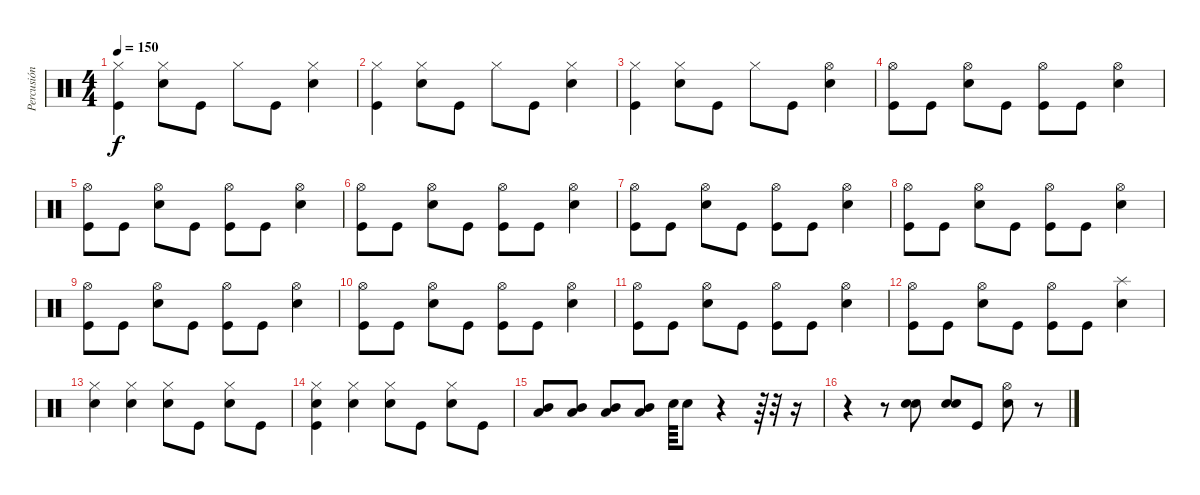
\track ("Percusión" "Percusión") {instrument percussion}
\staff {score}
\articulation defaults
\ts (4 4)
\tempo 150
\clef neutral
\ks c
("Hi-Hat (closed)" "Kick (hit)").4{dy f} ("Hi-Hat (closed)" "Snare (hit) 2").8 "Kick (hit)".8 "Hi-Hat (closed)".8 "Kick (hit)".8 ("Hi-Hat (closed)" "Snare (hit) 2").4 |
("Hi-Hat (closed)" "Kick (hit)").4 ("Hi-Hat (closed)" "Snare (hit) 2").8 "Kick (hit)".8 "Hi-Hat (closed)".8 "Kick (hit)".8 ("Hi-Hat (closed)" "Snare (hit) 2").4 |
("Hi-Hat (closed)" "Kick (hit)").4 ("Hi-Hat (closed)" "Snare (hit) 2").8 "Kick (hit)".8 "Hi-Hat (closed)".8 "Kick (hit)".8 ("Hi-Hat (open)" "Snare (hit) 2").4 |
("Hi-Hat (open)" "Kick (hit)").8 "Kick (hit)".8 ("Hi-Hat (open)" "Snare (hit) 2").8 "Kick (hit)".8 ("Hi-Hat (open)" "Kick (hit)").8 "Kick (hit)".8 ("Hi-Hat (open)" "Snare (hit) 2").4 |
("Hi-Hat (open)" "Kick (hit)").8 "Kick (hit)".8 ("Hi-Hat (open)" "Snare (hit) 2").8 "Kick (hit)".8 ("Hi-Hat (open)" "Kick (hit)").8 "Kick (hit)".8 ("Hi-Hat (open)" "Snare (hit) 2").4 |
("Hi-Hat (open)" "Kick (hit)").8 "Kick (hit)".8 ("Hi-Hat (open)" "Snare (hit) 2").8 "Kick (hit)".8 ("Hi-Hat (open)" "Kick (hit)").8 "Kick (hit)".8 ("Hi-Hat (open)" "Snare (hit) 2").4 |
("Hi-Hat (open)" "Kick (hit)").8 "Kick (hit)".8 ("Hi-Hat (open)" "Snare (hit) 2").8 "Kick (hit)".8 ("Hi-Hat (open)" "Kick (hit)").8 "Kick (hit)".8 ("Hi-Hat (open)" "Snare (hit) 2").4 |
("Hi-Hat (open)" "Kick (hit)").8 "Kick (hit)".8 ("Hi-Hat (open)" "Snare (hit) 2").8 "Kick (hit)".8 ("Hi-Hat (open)" "Kick (hit)").8 "Kick (hit)".8 ("Hi-Hat (open)" "Snare (hit) 2").4 |
("Hi-Hat (open)" "Kick (hit)").8 "Kick (hit)".8 ("Hi-Hat (open)" "Snare (hit) 2").8 "Kick (hit)".8 ("Hi-Hat (open)" "Kick (hit)").8 "Kick (hit)".8 ("Hi-Hat (open)" "Snare (hit) 2").4 |
("Hi-Hat (open)" "Kick (hit)").8 "Kick (hit)".8 ("Hi-Hat (open)" "Snare (hit) 2").8 "Kick (hit)".8 ("Hi-Hat (open)" "Kick (hit)").8 "Kick (hit)".8 ("Hi-Hat (open)" "Snare (hit) 2").4 |
("Hi-Hat (open)" "Kick (hit)").8 "Kick (hit)".8 ("Hi-Hat (open)" "Snare (hit) 2").8 "Kick (hit)".8 ("Hi-Hat (open)" "Kick (hit)").8 "Kick (hit)".8 ("Hi-Hat (open)" "Snare (hit) 2").4 |
("Hi-Hat (open)" "Kick (hit)").8 "Kick (hit)".8 ("Hi-Hat (open)" "Snare (hit) 2").8 "Kick (hit)".8 ("Hi-Hat (open)" "Kick (hit)").8 "Kick (hit)".8 ("Splash (hit)" "Snare (hit) 2").4 |
("Hi-Hat (closed)" "Snare (hit) 2").4 ("Hi-Hat (closed)" "Snare (hit) 2").4 ("Hi-Hat (closed)" "Snare (hit) 2").8 "Kick (hit)".8 ("Hi-Hat (closed)" "Snare (hit) 2").8 "Kick (hit)".8 |
("Hi-Hat (closed)" "Snare (hit) 2" "Kick (hit)").4 ("Hi-Hat (closed)" "Snare (hit) 2").4 ("Hi-Hat (closed)" "Snare (hit) 2").8 "Kick (hit)".8 ("Hi-Hat (closed)" "Snare (hit) 2").8 "Kick (hit)".8 |
("Mid Tom (hit)" "Low Floor Tom (hit)").8 ("Mid Tom (hit)" "Low Floor Tom (hit)").8 ("Mid Tom (hit)" "Low Floor Tom (hit)").8 ("Mid Tom (hit)" "Low Floor Tom (hit)").8 "Snare (hit) 2".64 "Snare (hit) 2".8 r.4 r.64 r.32 r.16 |
r.4 r.8 ("Snare (hit) 2" "Snare (hit) 2").8 ("Snare (hit) 2" "Snare (hit) 2").8 "Kick (hit)".8 ("Hi-Hat (open)" "Snare (hit) 2").8 r.8
